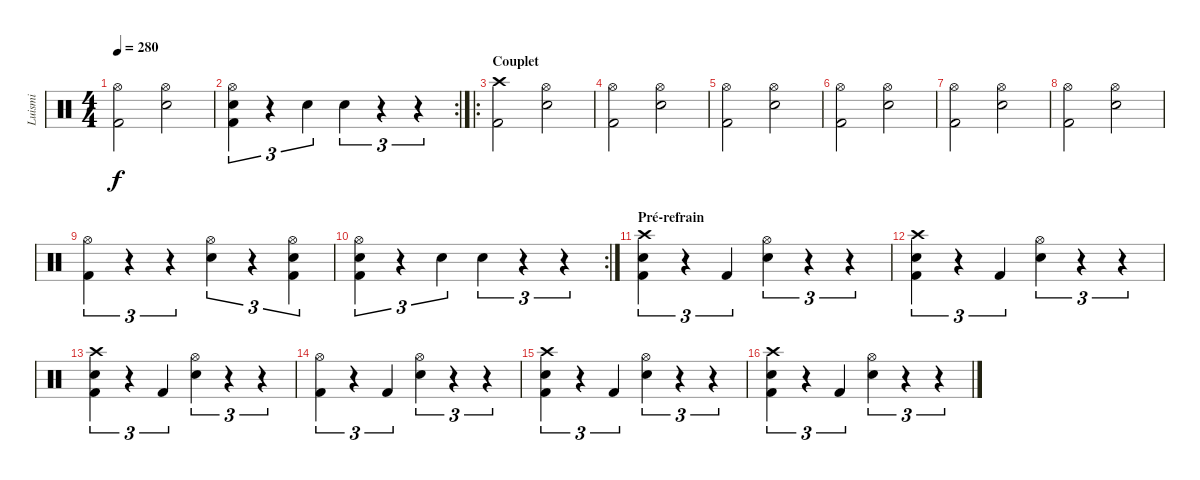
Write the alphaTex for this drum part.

\track ("Luismi" "Luismi") {instrument percussion}
\staff {score}
\articulation defaults
\ts (4 4)
\tempo 280
\clef neutral
\ks c
("Hi-Hat (open)" "Kick (hit) 2").2{dy f} ("Hi-Hat (open)" "Snare (hit) 2").2 |
\rc 2
("Hi-Hat (open)" "Snare (hit) 2" "Kick (hit) 2").4{tu (3 2)} r.4{tu (3 2)} "Snare (hit) 2".4{tu (3 2)} "Snare (hit) 2".4{tu (3 2)} r.4{tu (3 2)} r.4{tu (3 2)} |
\ro
\section ("" "Couplet")
("Crash high (hit)" "Kick (hit) 2").2 ("Hi-Hat (open)" "Snare (hit) 2").2 |
("Hi-Hat (open)" "Kick (hit) 2").2 ("Hi-Hat (open)" "Snare (hit) 2").2 |
("Hi-Hat (open)" "Kick (hit) 2").2 ("Hi-Hat (open)" "Snare (hit) 2").2 |
("Hi-Hat (open)" "Kick (hit) 2").2 ("Hi-Hat (open)" "Snare (hit) 2").2 |
("Hi-Hat (open)" "Kick (hit) 2").2 ("Hi-Hat (open)" "Snare (hit) 2").2 |
("Hi-Hat (open)" "Kick (hit) 2").2 ("Hi-Hat (open)" "Snare (hit) 2").2 |
("Hi-Hat (open)" "Kick (hit) 2").4{tu (3 2)} r.4{tu (3 2)} r.4{tu (3 2)} ("Hi-Hat (open)" "Snare (hit) 2").4{tu (3 2)} r.4{tu (3 2)} ("Hi-Hat (open)" "Snare (hit) 2" "Kick (hit) 2").4{tu (3 2)} |
\rc 2
("Hi-Hat (open)" "Snare (hit) 2" "Kick (hit) 2").4{tu (3 2)} r.4{tu (3 2)} "Snare (hit) 2".4{tu (3 2)} "Snare (hit) 2".4{tu (3 2)} r.4{tu (3 2)} r.4{tu (3 2)} |
\section ("" "Pré-refrain")
("Crash high (hit)" "Snare (hit) 2" "Kick (hit) 2").4{tu (3 2)} r.4{tu (3 2)} "Kick (hit) 2".4{tu (3 2)} ("Hi-Hat (open)" "Snare (hit) 2").4{tu (3 2)} r.4{tu (3 2)} r.4{tu (3 2)} |
("Crash high (hit)" "Snare (hit) 2" "Kick (hit) 2").4{tu (3 2)} r.4{tu (3 2)} "Kick (hit) 2".4{tu (3 2)} ("Hi-Hat (open)" "Snare (hit) 2").4{tu (3 2)} r.4{tu (3 2)} r.4{tu (3 2)} |
("Crash high (hit)" "Snare (hit) 2" "Kick (hit) 2").4{tu (3 2)} r.4{tu (3 2)} "Kick (hit) 2".4{tu (3 2)} ("Hi-Hat (open)" "Snare (hit) 2").4{tu (3 2)} r.4{tu (3 2)} r.4{tu (3 2)} |
("Hi-Hat (open)" "Kick (hit) 2").4{tu (3 2)} r.4{tu (3 2)} "Kick (hit) 2".4{tu (3 2)} ("Hi-Hat (open)" "Snare (hit) 2").4{tu (3 2)} r.4{tu (3 2)} r.4{tu (3 2)} |
("Crash high (hit)" "Snare (hit) 2" "Kick (hit) 2").4{tu (3 2)} r.4{tu (3 2)} "Kick (hit) 2".4{tu (3 2)} ("Hi-Hat (open)" "Snare (hit) 2").4{tu (3 2)} r.4{tu (3 2)} r.4{tu (3 2)} |
("Crash high (hit)" "Snare (hit) 2" "Kick (hit) 2").4{tu (3 2)} r.4{tu (3 2)} "Kick (hit) 2".4{tu (3 2)} ("Hi-Hat (open)" "Snare (hit) 2").4{tu (3 2)} r.4{tu (3 2)} r.4{tu (3 2)}
